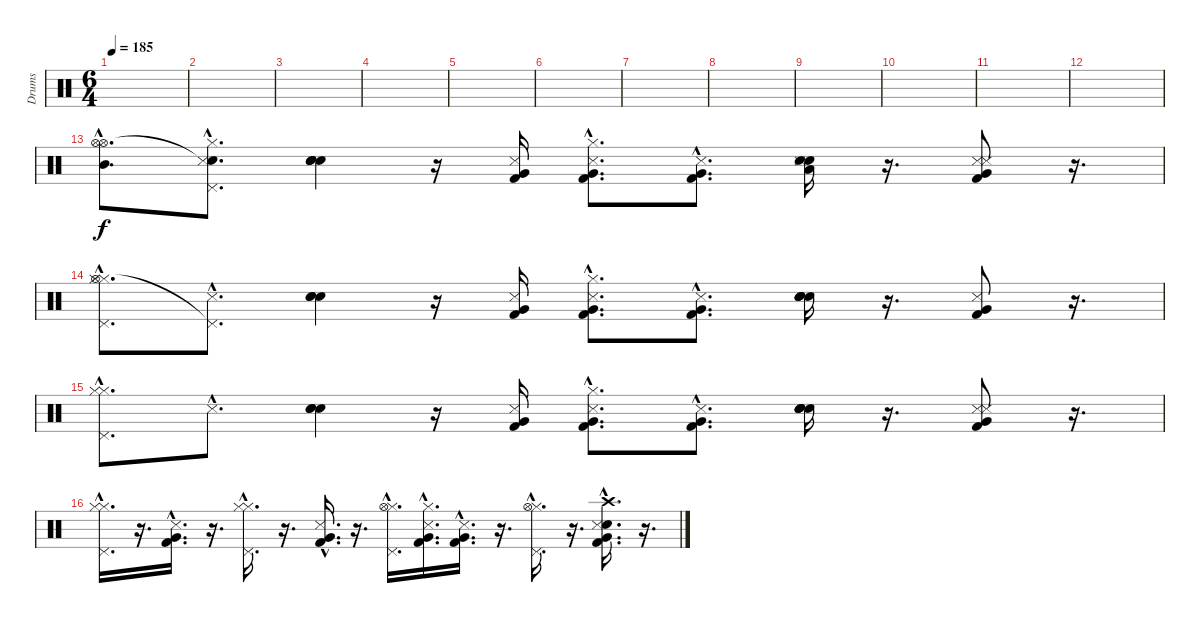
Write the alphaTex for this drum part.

\track ("Drums" "Drums") {instrument percussion}
\staff {score}
\articulation defaults
\ts (6 4)
\tempo 185
\clef neutral
\ks c
|
|
|
|
|
|
|
|
|
|
|
|
("Hi-Hat (open)"{hac} "Hi-Hat (open)"{hac} "Mid Tom (hit)"{hac}).8{d} ("Snare (hit)"{hac t} "Hi-Hat (closed)"{hac} "Pedal Hi-Hat (hit)"{hac} "Metronome (hit)"{hac}).8{d} ("Snare (hit) 2" "Snare (hit) 2" "Electric Snare (hit)" "Electric Snare (hit)").4 r.16 ("Very Low Tom (hit)" "Metronome (hit)" "Kick (hit) 2").16 ("Hi-Hat (closed)"{hac} "Very Low Tom (hit)"{hac} "Metronome (hit)"{hac} "Kick (hit) 2"{hac}).8{d} ("Very Low Tom (hit)"{hac} "Metronome (hit)"{hac} "Kick (hit) 2"{hac}).8{d} ("Snare (hit) 2" "Low Tom (hit)" "Snare (hit) 2" "Snare (side stick) 3").16 r.16{d} ("Metronome (hit)" "Very Low Tom (hit)" "Metronome (hit)" "Kick (hit) 2").8 r.16{d} |
("Hi-Hat (closed)"{hac} "Hi-Hat (open)"{hac} "Pedal Hi-Hat (hit)"{hac} "Hi-Hat (closed)"{hac}).8{d} ("Pedal Hi-Hat (hit)"{hac t} "Metronome (hit)"{hac}).8{d} ("Snare (hit) 2" "Snare (hit) 2" "Snare (hit) 2").4 r.16 ("Very Low Tom (hit)" "Metronome (hit)" "Kick (hit) 2").16 ("Hi-Hat (closed)"{hac} "Very Low Tom (hit)"{hac} "Metronome (hit)"{hac} "Kick (hit) 2"{hac}).8{d} ("Very Low Tom (hit)"{hac} "Metronome (hit)"{hac} "Kick (hit) 2"{hac}).8{d} ("Snare (hit) 2" "Snare (hit) 2" "Snare (hit) 2" "Snare (hit) 2").16 r.16{d} ("Very Low Tom (hit)" "Metronome (hit)" "Kick (hit) 2").8 r.16{d} |
("Hi-Hat (closed)"{hac} "Pedal Hi-Hat (hit)"{hac} "Hi-Hat (closed)"{hac}).8{d} "Metronome (hit)"{hac}.8{d} ("Snare (hit) 2" "Snare (hit) 2" "Snare (hit) 2").4 r.16 ("Very Low Tom (hit)" "Metronome (hit)" "Kick (hit) 2").16 ("Hi-Hat (closed)"{hac} "Very Low Tom (hit)"{hac} "Metronome (hit)"{hac} "Kick (hit) 2"{hac}).8{d} ("Very Low Tom (hit)"{hac} "Metronome (hit)"{hac} "Kick (hit) 2"{hac}).8{d} ("Snare (hit) 2" "Snare (hit) 2" "Snare (hit) 2" "Snare (hit) 2").16 r.16{d} ("Metronome (hit)" "Very Low Tom (hit)" "Metronome (hit)" "Kick (hit) 2").8 r.16{d} |
("Hi-Hat (closed)"{hac} "Pedal Hi-Hat (hit)"{hac} "Hi-Hat (closed)"{hac}).16{d} r.16{d} ("Very Low Tom (hit)"{hac} "Metronome (hit)"{hac} "Kick (hit) 2"{hac}).16{d} r.16{d} ("Hi-Hat (closed)"{hac} "Pedal Hi-Hat (hit)"{hac} "Hi-Hat (closed)"{hac}).16{d} r.16{d} ("Very Low Tom (hit)"{hac} "Metronome (hit)"{hac} "Kick (hit) 2"{hac}).16{d} r.16{d} ("Hi-Hat (closed)"{hac} "Pedal Hi-Hat (hit)"{hac} "Hi-Hat (open)"{hac}).16{d} ("Hi-Hat (closed)"{hac} "Very Low Tom (hit)"{hac} "Metronome (hit)"{hac} "Kick (hit) 2"{hac}).16{d} ("Very Low Tom (hit)"{hac} "Metronome (hit)"{hac} "Kick (hit) 2"{hac}).16{d} r.16{d} ("Hi-Hat (closed)"{hac} "Pedal Hi-Hat (hit)"{hac} "Hi-Hat (open)"{hac}).16{d} r.16{d} ("Crash high (hit)"{hac} "Snare (hit) 2"{hac} "Very Low Tom (hit)"{hac} "Metronome (hit)"{hac} "Kick (hit) 2"{hac}).16{d} r.16{d}
